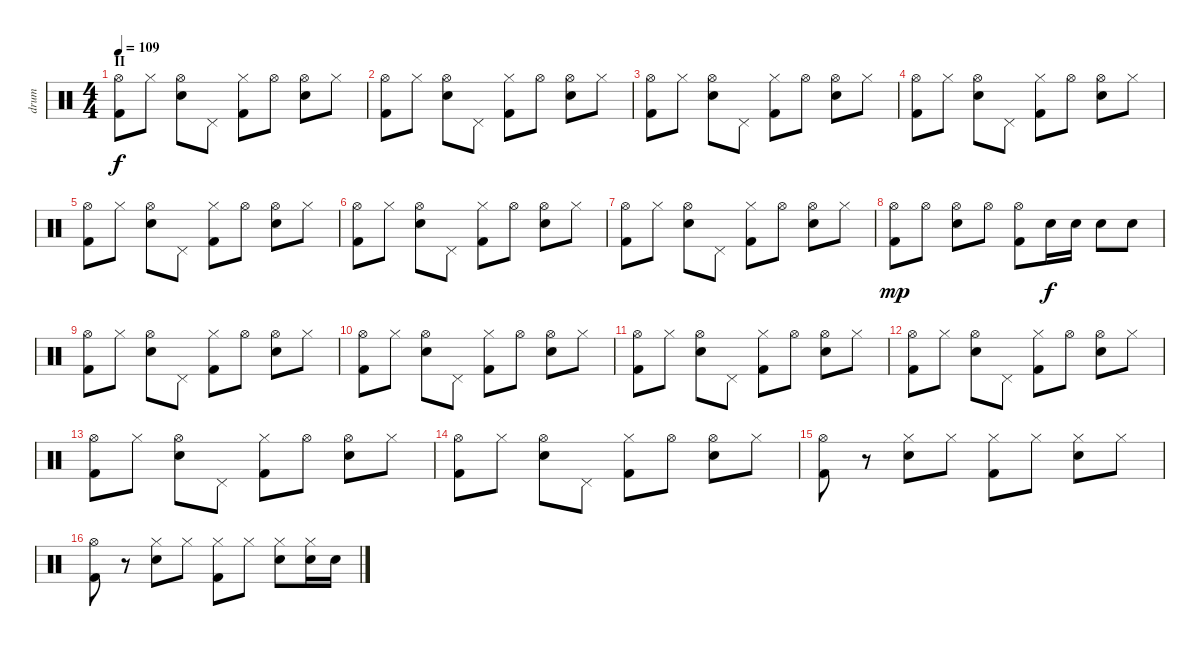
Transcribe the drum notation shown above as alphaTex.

\track ("drum" "drum") {instrument percussion}
\staff {score}
\articulation defaults
\ts (4 4)
\section ("" "II")
\tempo 109
\clef neutral
\ks c
("Hi-Hat (open)" "Kick (hit) 2").8{dy f} "Hi-Hat (closed)".8 ("Hi-Hat (open)" "Electric Snare (hit)").8 "Pedal Hi-Hat (hit)".8 ("Hi-Hat (closed)" "Kick (hit) 2").8 "Hi-Hat (open)".8 ("Hi-Hat (open)" "Electric Snare (hit)").8 "Hi-Hat (closed)".8 |
("Hi-Hat (open)" "Kick (hit) 2").8 "Hi-Hat (closed)".8 ("Hi-Hat (open)" "Electric Snare (hit)").8 "Pedal Hi-Hat (hit)".8 ("Hi-Hat (closed)" "Kick (hit) 2").8 "Hi-Hat (open)".8 ("Hi-Hat (open)" "Electric Snare (hit)").8 "Hi-Hat (closed)".8 |
("Hi-Hat (open)" "Kick (hit) 2").8 "Hi-Hat (closed)".8 ("Hi-Hat (open)" "Electric Snare (hit)").8 "Pedal Hi-Hat (hit)".8 ("Hi-Hat (closed)" "Kick (hit) 2").8 "Hi-Hat (open)".8 ("Hi-Hat (open)" "Electric Snare (hit)").8 "Hi-Hat (closed)".8 |
("Hi-Hat (open)" "Kick (hit) 2").8 "Hi-Hat (closed)".8 ("Hi-Hat (open)" "Electric Snare (hit)").8 "Pedal Hi-Hat (hit)".8 ("Hi-Hat (closed)" "Kick (hit) 2").8 "Hi-Hat (open)".8 ("Hi-Hat (open)" "Electric Snare (hit)").8 "Hi-Hat (closed)".8 |
("Hi-Hat (open)" "Kick (hit) 2").8 "Hi-Hat (closed)".8 ("Hi-Hat (open)" "Electric Snare (hit)").8 "Pedal Hi-Hat (hit)".8 ("Hi-Hat (closed)" "Kick (hit) 2").8 "Hi-Hat (open)".8 ("Hi-Hat (open)" "Electric Snare (hit)").8 "Hi-Hat (closed)".8 |
("Hi-Hat (open)" "Kick (hit) 2").8 "Hi-Hat (closed)".8 ("Hi-Hat (open)" "Electric Snare (hit)").8 "Pedal Hi-Hat (hit)".8 ("Hi-Hat (closed)" "Kick (hit) 2").8 "Hi-Hat (open)".8 ("Hi-Hat (open)" "Electric Snare (hit)").8 "Hi-Hat (closed)".8 |
("Hi-Hat (open)" "Kick (hit) 2").8 "Hi-Hat (closed)".8 ("Hi-Hat (open)" "Electric Snare (hit)").8 "Pedal Hi-Hat (hit)".8 ("Hi-Hat (closed)" "Kick (hit) 2").8 "Hi-Hat (open)".8 ("Hi-Hat (open)" "Electric Snare (hit)").8 "Hi-Hat (closed)".8 |
("Hi-Hat (open)" "Kick (hit) 2").8{dy mp} "Hi-Hat (open)".8 ("Hi-Hat (open)" "Electric Snare (hit)").8 "Hi-Hat (open)".8 ("Hi-Hat (open)" "Kick (hit) 2").8 "Electric Snare (hit)".16{dy f} "Electric Snare (hit)".16 "Electric Snare (hit)".8 "Electric Snare (hit)".8 |
("Hi-Hat (open)" "Kick (hit) 2").8 "Hi-Hat (closed)".8 ("Hi-Hat (open)" "Electric Snare (hit)").8 "Pedal Hi-Hat (hit)".8 ("Hi-Hat (closed)" "Kick (hit) 2").8 "Hi-Hat (open)".8 ("Hi-Hat (open)" "Electric Snare (hit)").8 "Hi-Hat (closed)".8 |
("Hi-Hat (open)" "Kick (hit) 2").8 "Hi-Hat (closed)".8 ("Hi-Hat (open)" "Electric Snare (hit)").8 "Pedal Hi-Hat (hit)".8 ("Hi-Hat (closed)" "Kick (hit) 2").8 "Hi-Hat (open)".8 ("Hi-Hat (open)" "Electric Snare (hit)").8 "Hi-Hat (closed)".8 |
("Hi-Hat (open)" "Kick (hit) 2").8 "Hi-Hat (closed)".8 ("Hi-Hat (open)" "Electric Snare (hit)").8 "Pedal Hi-Hat (hit)".8 ("Hi-Hat (closed)" "Kick (hit) 2").8 "Hi-Hat (open)".8 ("Hi-Hat (open)" "Electric Snare (hit)").8 "Hi-Hat (closed)".8 |
("Hi-Hat (open)" "Kick (hit) 2").8 "Hi-Hat (closed)".8 ("Hi-Hat (open)" "Electric Snare (hit)").8 "Pedal Hi-Hat (hit)".8 ("Hi-Hat (closed)" "Kick (hit) 2").8 "Hi-Hat (open)".8 ("Hi-Hat (open)" "Electric Snare (hit)").8 "Hi-Hat (closed)".8 |
("Hi-Hat (open)" "Kick (hit) 2").8 "Hi-Hat (closed)".8 ("Hi-Hat (open)" "Electric Snare (hit)").8 "Pedal Hi-Hat (hit)".8 ("Hi-Hat (closed)" "Kick (hit) 2").8 "Hi-Hat (open)".8 ("Hi-Hat (open)" "Electric Snare (hit)").8 "Hi-Hat (closed)".8 |
("Hi-Hat (open)" "Kick (hit) 2").8 "Hi-Hat (closed)".8 ("Hi-Hat (open)" "Electric Snare (hit)").8 "Pedal Hi-Hat (hit)".8 ("Hi-Hat (closed)" "Kick (hit) 2").8 "Hi-Hat (open)".8 ("Hi-Hat (open)" "Electric Snare (hit)").8 "Hi-Hat (closed)".8 |
("Hi-Hat (open)" "Kick (hit) 2").8 r.8 ("Hi-Hat (closed)" "Electric Snare (hit)").8 "Hi-Hat (closed)".8 ("Hi-Hat (closed)" "Kick (hit) 2").8 "Hi-Hat (closed)".8 ("Hi-Hat (closed)" "Electric Snare (hit)").8 "Hi-Hat (closed)".8 |
("Hi-Hat (open)" "Kick (hit) 2").8 r.8 ("Hi-Hat (closed)" "Electric Snare (hit)").8 "Hi-Hat (closed)".8 ("Hi-Hat (closed)" "Kick (hit) 2").8 "Hi-Hat (closed)".8 ("Hi-Hat (closed)" "Electric Snare (hit)").8 ("Hi-Hat (closed)" "Electric Snare (hit)").16 "Electric Snare (hit)".16
